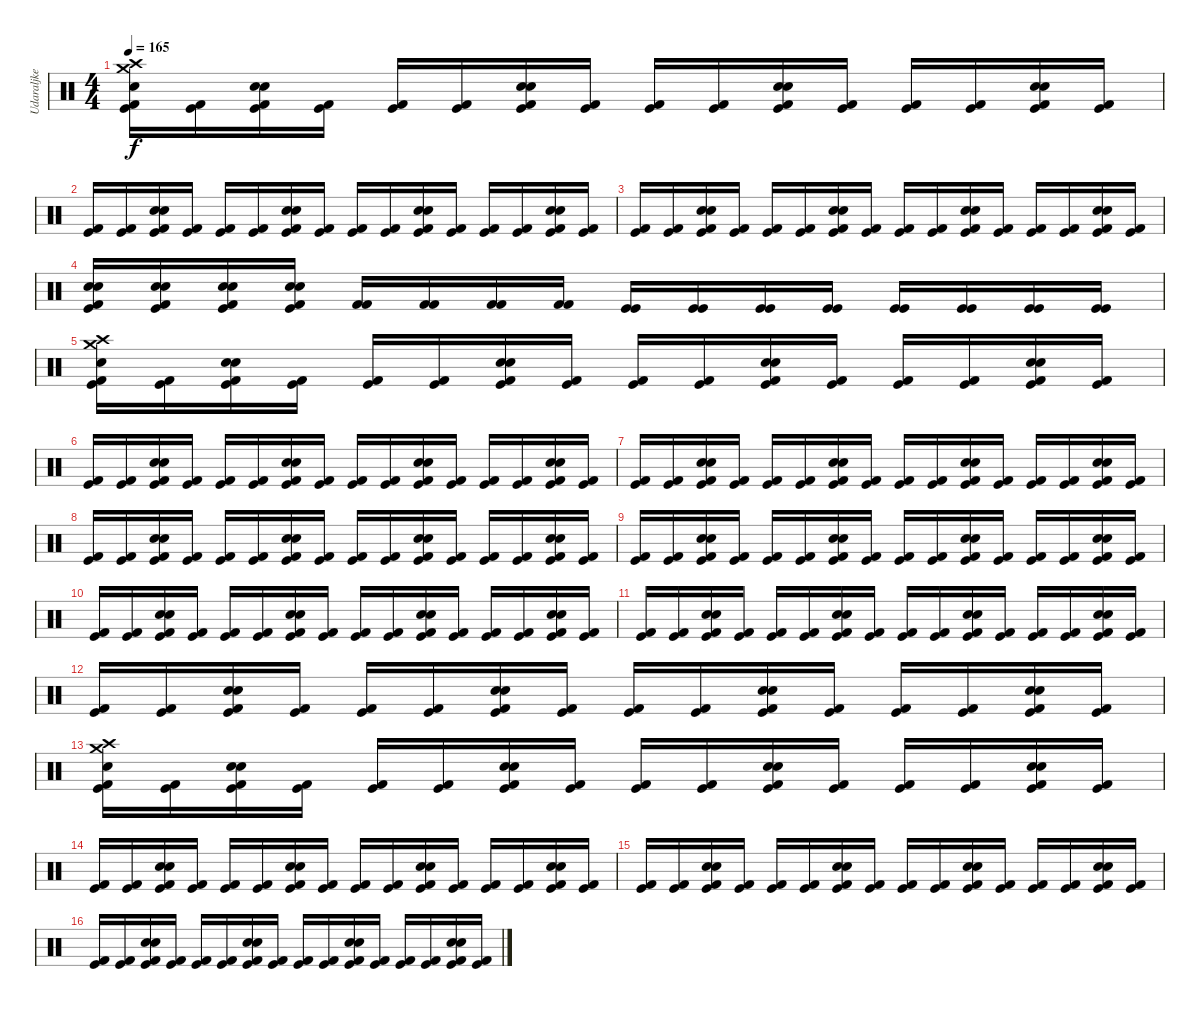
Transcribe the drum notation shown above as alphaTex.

\track ("Udaraljke" "Udaraljke") {instrument percussion}
\staff {score}
\articulation defaults
\ts (4 4)
\tempo 165
\clef neutral
\ks c
("Crash medium (hit)" "Crash high (hit)" "Snare (hit) 2" "Kick (hit) 2" "Kick (hit)").16{dy f} ("Kick (hit) 2" "Kick (hit)").16 ("Snare (hit) 2" "Snare (hit) 2" "Kick (hit) 2" "Kick (hit)").16 ("Kick (hit) 2" "Kick (hit)").16 ("Kick (hit) 2" "Kick (hit)").16 ("Kick (hit) 2" "Kick (hit)").16 ("Snare (hit) 2" "Snare (hit) 2" "Kick (hit) 2" "Kick (hit)").16 ("Kick (hit) 2" "Kick (hit)").16 ("Kick (hit) 2" "Kick (hit)").16 ("Kick (hit) 2" "Kick (hit)").16 ("Snare (hit) 2" "Snare (hit) 2" "Kick (hit) 2" "Kick (hit)").16 ("Kick (hit) 2" "Kick (hit)").16 ("Kick (hit) 2" "Kick (hit)").16 ("Kick (hit) 2" "Kick (hit)").16 ("Snare (hit) 2" "Snare (hit) 2" "Kick (hit) 2" "Kick (hit)").16 ("Kick (hit) 2" "Kick (hit)").16 |
("Kick (hit) 2" "Kick (hit)").16 ("Kick (hit) 2" "Kick (hit)").16 ("Snare (hit) 2" "Snare (hit) 2" "Kick (hit) 2" "Kick (hit)").16 ("Kick (hit) 2" "Kick (hit)").16 ("Kick (hit) 2" "Kick (hit)").16 ("Kick (hit) 2" "Kick (hit)").16 ("Snare (hit) 2" "Snare (hit) 2" "Kick (hit) 2" "Kick (hit)").16 ("Kick (hit) 2" "Kick (hit)").16 ("Kick (hit) 2" "Kick (hit)").16 ("Kick (hit) 2" "Kick (hit)").16 ("Snare (hit) 2" "Snare (hit) 2" "Kick (hit) 2" "Kick (hit)").16 ("Kick (hit) 2" "Kick (hit)").16 ("Kick (hit) 2" "Kick (hit)").16 ("Kick (hit) 2" "Kick (hit)").16 ("Snare (hit) 2" "Snare (hit) 2" "Kick (hit) 2" "Kick (hit)").16 ("Kick (hit) 2" "Kick (hit)").16 |
("Kick (hit) 2" "Kick (hit)").16 ("Kick (hit) 2" "Kick (hit)").16 ("Snare (hit) 2" "Snare (hit) 2" "Kick (hit) 2" "Kick (hit)").16 ("Kick (hit) 2" "Kick (hit)").16 ("Kick (hit) 2" "Kick (hit)").16 ("Kick (hit) 2" "Kick (hit)").16 ("Snare (hit) 2" "Snare (hit) 2" "Kick (hit) 2" "Kick (hit)").16 ("Kick (hit) 2" "Kick (hit)").16 ("Kick (hit) 2" "Kick (hit)").16 ("Kick (hit) 2" "Kick (hit)").16 ("Snare (hit) 2" "Snare (hit) 2" "Kick (hit) 2" "Kick (hit)").16 ("Kick (hit) 2" "Kick (hit)").16 ("Kick (hit) 2" "Kick (hit)").16 ("Kick (hit) 2" "Kick (hit)").16 ("Snare (hit) 2" "Snare (hit) 2" "Kick (hit) 2" "Kick (hit)").16 ("Kick (hit) 2" "Kick (hit)").16 |
("Snare (hit) 2" "Snare (hit) 2" "Kick (hit) 2" "Kick (hit)").16 ("Snare (hit) 2" "Snare (hit) 2" "Kick (hit) 2" "Kick (hit)").16 ("Snare (hit) 2" "Snare (hit) 2" "Kick (hit) 2" "Kick (hit)").16 ("Snare (hit) 2" "Snare (hit) 2" "Kick (hit) 2" "Kick (hit)").16 ("Kick (hit) 2" "Kick (hit) 2").16 ("Kick (hit) 2" "Kick (hit) 2").16 ("Kick (hit) 2" "Kick (hit) 2").16 ("Kick (hit) 2" "Kick (hit) 2").16 ("Kick (hit)" "Kick (hit)").16 ("Kick (hit)" "Kick (hit)").16 ("Kick (hit)" "Kick (hit)").16 ("Kick (hit)" "Kick (hit)").16 ("Kick (hit)" "Kick (hit)").16 ("Kick (hit)" "Kick (hit)").16 ("Kick (hit)" "Kick (hit)").16 ("Kick (hit)" "Kick (hit)").16 |
("Crash medium (hit)" "Crash high (hit)" "Snare (hit) 2" "Kick (hit) 2" "Kick (hit)").16 ("Kick (hit) 2" "Kick (hit)").16 ("Snare (hit) 2" "Snare (hit) 2" "Kick (hit) 2" "Kick (hit)").16 ("Kick (hit) 2" "Kick (hit)").16 ("Kick (hit) 2" "Kick (hit)").16 ("Kick (hit) 2" "Kick (hit)").16 ("Snare (hit) 2" "Snare (hit) 2" "Kick (hit) 2" "Kick (hit)").16 ("Kick (hit) 2" "Kick (hit)").16 ("Kick (hit) 2" "Kick (hit)").16 ("Kick (hit) 2" "Kick (hit)").16 ("Snare (hit) 2" "Snare (hit) 2" "Kick (hit) 2" "Kick (hit)").16 ("Kick (hit) 2" "Kick (hit)").16 ("Kick (hit) 2" "Kick (hit)").16 ("Kick (hit) 2" "Kick (hit)").16 ("Snare (hit) 2" "Snare (hit) 2" "Kick (hit) 2" "Kick (hit)").16 ("Kick (hit) 2" "Kick (hit)").16 |
("Kick (hit) 2" "Kick (hit)").16 ("Kick (hit) 2" "Kick (hit)").16 ("Snare (hit) 2" "Snare (hit) 2" "Kick (hit) 2" "Kick (hit)").16 ("Kick (hit) 2" "Kick (hit)").16 ("Kick (hit) 2" "Kick (hit)").16 ("Kick (hit) 2" "Kick (hit)").16 ("Snare (hit) 2" "Snare (hit) 2" "Kick (hit) 2" "Kick (hit)").16 ("Kick (hit) 2" "Kick (hit)").16 ("Kick (hit) 2" "Kick (hit)").16 ("Kick (hit) 2" "Kick (hit)").16 ("Snare (hit) 2" "Snare (hit) 2" "Kick (hit) 2" "Kick (hit)").16 ("Kick (hit) 2" "Kick (hit)").16 ("Kick (hit) 2" "Kick (hit)").16 ("Kick (hit) 2" "Kick (hit)").16 ("Snare (hit) 2" "Snare (hit) 2" "Kick (hit) 2" "Kick (hit)").16 ("Kick (hit) 2" "Kick (hit)").16 |
("Kick (hit) 2" "Kick (hit)").16 ("Kick (hit) 2" "Kick (hit)").16 ("Snare (hit) 2" "Snare (hit) 2" "Kick (hit) 2" "Kick (hit)").16 ("Kick (hit) 2" "Kick (hit)").16 ("Kick (hit) 2" "Kick (hit)").16 ("Kick (hit) 2" "Kick (hit)").16 ("Snare (hit) 2" "Snare (hit) 2" "Kick (hit) 2" "Kick (hit)").16 ("Kick (hit) 2" "Kick (hit)").16 ("Kick (hit) 2" "Kick (hit)").16 ("Kick (hit) 2" "Kick (hit)").16 ("Snare (hit) 2" "Snare (hit) 2" "Kick (hit) 2" "Kick (hit)").16 ("Kick (hit) 2" "Kick (hit)").16 ("Kick (hit) 2" "Kick (hit)").16 ("Kick (hit) 2" "Kick (hit)").16 ("Snare (hit) 2" "Snare (hit) 2" "Kick (hit) 2" "Kick (hit)").16 ("Kick (hit) 2" "Kick (hit)").16 |
("Kick (hit) 2" "Kick (hit)").16 ("Kick (hit) 2" "Kick (hit)").16 ("Snare (hit) 2" "Snare (hit) 2" "Kick (hit) 2" "Kick (hit)").16 ("Kick (hit) 2" "Kick (hit)").16 ("Kick (hit) 2" "Kick (hit)").16 ("Kick (hit) 2" "Kick (hit)").16 ("Snare (hit) 2" "Snare (hit) 2" "Kick (hit) 2" "Kick (hit)").16 ("Kick (hit) 2" "Kick (hit)").16 ("Kick (hit) 2" "Kick (hit)").16 ("Kick (hit) 2" "Kick (hit)").16 ("Snare (hit) 2" "Snare (hit) 2" "Kick (hit) 2" "Kick (hit)").16 ("Kick (hit) 2" "Kick (hit)").16 ("Kick (hit) 2" "Kick (hit)").16 ("Kick (hit) 2" "Kick (hit)").16 ("Snare (hit) 2" "Snare (hit) 2" "Kick (hit) 2" "Kick (hit)").16 ("Kick (hit) 2" "Kick (hit)").16 |
("Kick (hit) 2" "Kick (hit)").16 ("Kick (hit) 2" "Kick (hit)").16 ("Snare (hit) 2" "Snare (hit) 2" "Kick (hit) 2" "Kick (hit)").16 ("Kick (hit) 2" "Kick (hit)").16 ("Kick (hit) 2" "Kick (hit)").16 ("Kick (hit) 2" "Kick (hit)").16 ("Snare (hit) 2" "Snare (hit) 2" "Kick (hit) 2" "Kick (hit)").16 ("Kick (hit) 2" "Kick (hit)").16 ("Kick (hit) 2" "Kick (hit)").16 ("Kick (hit) 2" "Kick (hit)").16 ("Snare (hit) 2" "Snare (hit) 2" "Kick (hit) 2" "Kick (hit)").16 ("Kick (hit) 2" "Kick (hit)").16 ("Kick (hit) 2" "Kick (hit)").16 ("Kick (hit) 2" "Kick (hit)").16 ("Snare (hit) 2" "Snare (hit) 2" "Kick (hit) 2" "Kick (hit)").16 ("Kick (hit) 2" "Kick (hit)").16 |
("Kick (hit) 2" "Kick (hit)").16 ("Kick (hit) 2" "Kick (hit)").16 ("Snare (hit) 2" "Snare (hit) 2" "Kick (hit) 2" "Kick (hit)").16 ("Kick (hit) 2" "Kick (hit)").16 ("Kick (hit) 2" "Kick (hit)").16 ("Kick (hit) 2" "Kick (hit)").16 ("Snare (hit) 2" "Snare (hit) 2" "Kick (hit) 2" "Kick (hit)").16 ("Kick (hit) 2" "Kick (hit)").16 ("Kick (hit) 2" "Kick (hit)").16 ("Kick (hit) 2" "Kick (hit)").16 ("Snare (hit) 2" "Snare (hit) 2" "Kick (hit) 2" "Kick (hit)").16 ("Kick (hit) 2" "Kick (hit)").16 ("Kick (hit) 2" "Kick (hit)").16 ("Kick (hit) 2" "Kick (hit)").16 ("Snare (hit) 2" "Snare (hit) 2" "Kick (hit) 2" "Kick (hit)").16 ("Kick (hit) 2" "Kick (hit)").16 |
("Kick (hit) 2" "Kick (hit)").16 ("Kick (hit) 2" "Kick (hit)").16 ("Snare (hit) 2" "Snare (hit) 2" "Kick (hit) 2" "Kick (hit)").16 ("Kick (hit) 2" "Kick (hit)").16 ("Kick (hit) 2" "Kick (hit)").16 ("Kick (hit) 2" "Kick (hit)").16 ("Snare (hit) 2" "Snare (hit) 2" "Kick (hit) 2" "Kick (hit)").16 ("Kick (hit) 2" "Kick (hit)").16 ("Kick (hit) 2" "Kick (hit)").16 ("Kick (hit) 2" "Kick (hit)").16 ("Snare (hit) 2" "Snare (hit) 2" "Kick (hit) 2" "Kick (hit)").16 ("Kick (hit) 2" "Kick (hit)").16 ("Kick (hit) 2" "Kick (hit)").16 ("Kick (hit) 2" "Kick (hit)").16 ("Snare (hit) 2" "Snare (hit) 2" "Kick (hit) 2" "Kick (hit)").16 ("Kick (hit) 2" "Kick (hit)").16 |
("Kick (hit) 2" "Kick (hit)").16 ("Kick (hit) 2" "Kick (hit)").16 ("Snare (hit) 2" "Snare (hit) 2" "Kick (hit) 2" "Kick (hit)").16 ("Kick (hit) 2" "Kick (hit)").16 ("Kick (hit) 2" "Kick (hit)").16 ("Kick (hit) 2" "Kick (hit)").16 ("Snare (hit) 2" "Snare (hit) 2" "Kick (hit) 2" "Kick (hit)").16 ("Kick (hit) 2" "Kick (hit)").16 ("Kick (hit) 2" "Kick (hit)").16 ("Kick (hit) 2" "Kick (hit)").16 ("Snare (hit) 2" "Snare (hit) 2" "Kick (hit) 2" "Kick (hit)").16 ("Kick (hit) 2" "Kick (hit)").16 ("Kick (hit) 2" "Kick (hit)").16 ("Kick (hit) 2" "Kick (hit)").16 ("Snare (hit) 2" "Snare (hit) 2" "Kick (hit) 2" "Kick (hit)").16 ("Kick (hit) 2" "Kick (hit)").16 |
("Crash medium (hit)" "Crash high (hit)" "Snare (hit) 2" "Kick (hit) 2" "Kick (hit)").16 ("Kick (hit) 2" "Kick (hit)").16 ("Snare (hit) 2" "Snare (hit) 2" "Kick (hit) 2" "Kick (hit)").16 ("Kick (hit) 2" "Kick (hit)").16 ("Kick (hit) 2" "Kick (hit)").16 ("Kick (hit) 2" "Kick (hit)").16 ("Snare (hit) 2" "Snare (hit) 2" "Kick (hit) 2" "Kick (hit)").16 ("Kick (hit) 2" "Kick (hit)").16 ("Kick (hit) 2" "Kick (hit)").16 ("Kick (hit) 2" "Kick (hit)").16 ("Snare (hit) 2" "Snare (hit) 2" "Kick (hit) 2" "Kick (hit)").16 ("Kick (hit) 2" "Kick (hit)").16 ("Kick (hit) 2" "Kick (hit)").16 ("Kick (hit) 2" "Kick (hit)").16 ("Snare (hit) 2" "Snare (hit) 2" "Kick (hit) 2" "Kick (hit)").16 ("Kick (hit) 2" "Kick (hit)").16 |
("Kick (hit) 2" "Kick (hit)").16 ("Kick (hit) 2" "Kick (hit)").16 ("Snare (hit) 2" "Snare (hit) 2" "Kick (hit) 2" "Kick (hit)").16 ("Kick (hit) 2" "Kick (hit)").16 ("Kick (hit) 2" "Kick (hit)").16 ("Kick (hit) 2" "Kick (hit)").16 ("Snare (hit) 2" "Snare (hit) 2" "Kick (hit) 2" "Kick (hit)").16 ("Kick (hit) 2" "Kick (hit)").16 ("Kick (hit) 2" "Kick (hit)").16 ("Kick (hit) 2" "Kick (hit)").16 ("Snare (hit) 2" "Snare (hit) 2" "Kick (hit) 2" "Kick (hit)").16 ("Kick (hit) 2" "Kick (hit)").16 ("Kick (hit) 2" "Kick (hit)").16 ("Kick (hit) 2" "Kick (hit)").16 ("Snare (hit) 2" "Snare (hit) 2" "Kick (hit) 2" "Kick (hit)").16 ("Kick (hit) 2" "Kick (hit)").16 |
("Kick (hit) 2" "Kick (hit)").16 ("Kick (hit) 2" "Kick (hit)").16 ("Snare (hit) 2" "Snare (hit) 2" "Kick (hit) 2" "Kick (hit)").16 ("Kick (hit) 2" "Kick (hit)").16 ("Kick (hit) 2" "Kick (hit)").16 ("Kick (hit) 2" "Kick (hit)").16 ("Snare (hit) 2" "Snare (hit) 2" "Kick (hit) 2" "Kick (hit)").16 ("Kick (hit) 2" "Kick (hit)").16 ("Kick (hit) 2" "Kick (hit)").16 ("Kick (hit) 2" "Kick (hit)").16 ("Snare (hit) 2" "Snare (hit) 2" "Kick (hit) 2" "Kick (hit)").16 ("Kick (hit) 2" "Kick (hit)").16 ("Kick (hit) 2" "Kick (hit)").16 ("Kick (hit) 2" "Kick (hit)").16 ("Snare (hit) 2" "Snare (hit) 2" "Kick (hit) 2" "Kick (hit)").16 ("Kick (hit) 2" "Kick (hit)").16 |
("Kick (hit) 2" "Kick (hit)").16 ("Kick (hit) 2" "Kick (hit)").16 ("Snare (hit) 2" "Snare (hit) 2" "Kick (hit) 2" "Kick (hit)").16 ("Kick (hit) 2" "Kick (hit)").16 ("Kick (hit) 2" "Kick (hit)").16 ("Kick (hit) 2" "Kick (hit)").16 ("Snare (hit) 2" "Snare (hit) 2" "Kick (hit) 2" "Kick (hit)").16 ("Kick (hit) 2" "Kick (hit)").16 ("Kick (hit) 2" "Kick (hit)").16 ("Kick (hit) 2" "Kick (hit)").16 ("Snare (hit) 2" "Snare (hit) 2" "Kick (hit) 2" "Kick (hit)").16 ("Kick (hit) 2" "Kick (hit)").16 ("Kick (hit) 2" "Kick (hit)").16 ("Kick (hit) 2" "Kick (hit)").16 ("Snare (hit) 2" "Snare (hit) 2" "Kick (hit) 2" "Kick (hit)").16 ("Kick (hit) 2" "Kick (hit)").16
